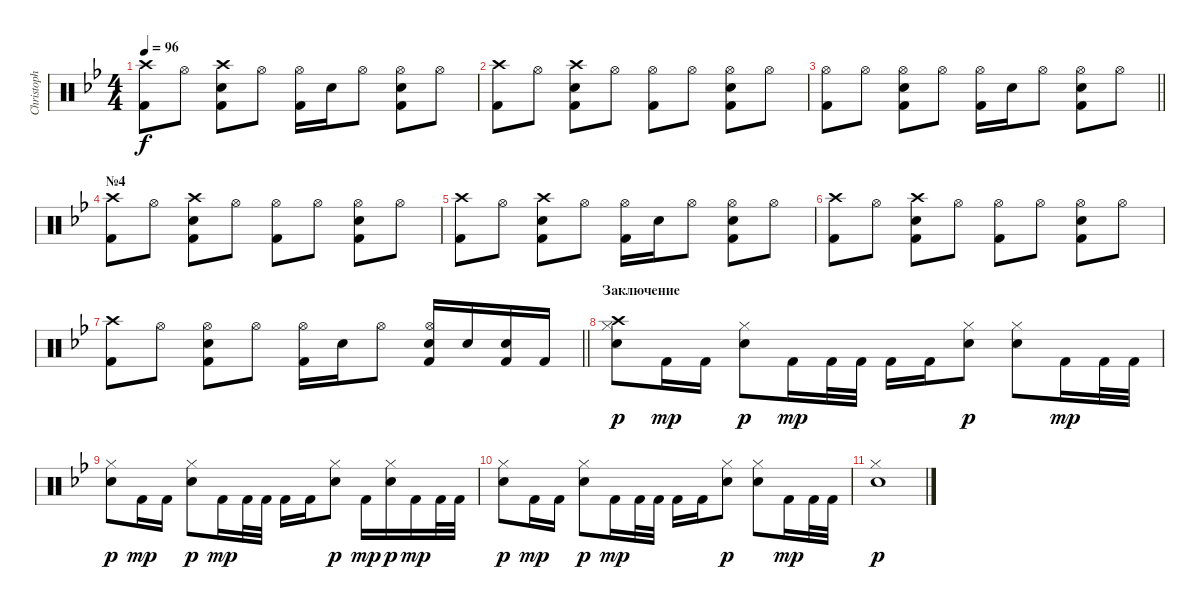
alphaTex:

\track ("Christoph Doom Schneider" "Christoph ") {instrument percussion}
\staff {score}
\articulation defaults
\ts (4 4)
\tempo 96
\clef neutral
\ks bb
("Crash high (hit)" "Kick (hit) 2").8{dy f} "Hi-Hat (open)".8 ("Snare (hit) 2" "Kick (hit) 2" "Crash high (hit)").8 "Hi-Hat (open)".8 ("Hi-Hat (open)" "Kick (hit) 2").16 "Snare (hit) 2".16 "Hi-Hat (open)".8 ("Snare (hit) 2" "Hi-Hat (open)" "Kick (hit) 2").8 "Hi-Hat (open)".8 |
("Crash high (hit)" "Kick (hit) 2").8 "Hi-Hat (open)".8 ("Snare (hit) 2" "Kick (hit) 2" "Crash high (hit)").8 "Hi-Hat (open)".8 ("Hi-Hat (open)" "Kick (hit) 2").8 "Hi-Hat (open)".8 ("Snare (hit) 2" "Hi-Hat (open)" "Kick (hit) 2").8 "Hi-Hat (open)".8 |
\barLineRight lightlight
("Hi-Hat (open)" "Kick (hit) 2").8 "Hi-Hat (open)".8 ("Snare (hit) 2" "Hi-Hat (open)" "Kick (hit) 2").8 "Hi-Hat (open)".8 ("Hi-Hat (open)" "Kick (hit) 2").16 "Snare (hit) 2".16 "Hi-Hat (open)".8 ("Snare (hit) 2" "Hi-Hat (open)" "Kick (hit) 2").8 "Hi-Hat (open)".8 |
\section ("" "№4")
("Crash high (hit)" "Kick (hit) 2").8 "Hi-Hat (open)".8 ("Snare (hit) 2" "Kick (hit) 2" "Crash high (hit)").8 "Hi-Hat (open)".8 ("Hi-Hat (open)" "Kick (hit) 2").8 "Hi-Hat (open)".8 ("Snare (hit) 2" "Hi-Hat (open)" "Kick (hit) 2").8 "Hi-Hat (open)".8 |
("Crash high (hit)" "Kick (hit) 2").8 "Hi-Hat (open)".8 ("Snare (hit) 2" "Kick (hit) 2" "Crash high (hit)").8 "Hi-Hat (open)".8 ("Hi-Hat (open)" "Kick (hit) 2").16 "Snare (hit) 2".16 "Hi-Hat (open)".8 ("Snare (hit) 2" "Hi-Hat (open)" "Kick (hit) 2").8 "Hi-Hat (open)".8 |
("Crash high (hit)" "Kick (hit) 2").8 "Hi-Hat (open)".8 ("Snare (hit) 2" "Kick (hit) 2" "Crash high (hit)").8 "Hi-Hat (open)".8 ("Hi-Hat (open)" "Kick (hit) 2").8 "Hi-Hat (open)".8 ("Snare (hit) 2" "Hi-Hat (open)" "Kick (hit) 2").8 "Hi-Hat (open)".8 |
\barLineRight lightlight
("Crash high (hit)" "Kick (hit) 2").8 "Hi-Hat (open)".8 ("Snare (hit) 2" "Hi-Hat (open)" "Kick (hit) 2").8 "Hi-Hat (open)".8 ("Hi-Hat (open)" "Kick (hit) 2").16 "Snare (hit) 2".16 "Hi-Hat (open)".8 ("Snare (hit) 2" "Hi-Hat (open)" "Kick (hit) 2").16 "Snare (hit) 2".16 ("Snare (hit) 2" "Kick (hit) 2").16 "Kick (hit) 2".16 |
\section ("" "Заключение")
("Snare (hit) 2" "Hi-Hat (closed)" "Crash high (hit)").8{dy p} "Kick (hit) 2".16{dy mp} "Kick (hit) 2".16 ("Snare (hit) 2" "Hi-Hat (closed)").8{dy p} "Kick (hit) 2".16{dy mp} "Kick (hit) 2".32 "Kick (hit) 2".32 "Kick (hit) 2".16 "Kick (hit) 2".16 ("Snare (hit) 2" "Hi-Hat (closed)").8{dy p} ("Snare (hit) 2" "Hi-Hat (closed)").8 "Kick (hit) 2".16{dy mp} "Kick (hit) 2".32 "Kick (hit) 2".32 |
("Snare (hit) 2" "Hi-Hat (closed)").8{dy p} "Kick (hit) 2".16{dy mp} "Kick (hit) 2".16 ("Snare (hit) 2" "Hi-Hat (closed)").8{dy p} "Kick (hit) 2".16{dy mp} "Kick (hit) 2".32 "Kick (hit) 2".32 "Kick (hit) 2".16 "Kick (hit) 2".16 ("Snare (hit) 2" "Hi-Hat (closed)").8{dy p} "Kick (hit) 2".16{dy mp} ("Snare (hit) 2" "Hi-Hat (closed)").16{dy p} "Kick (hit) 2".16{dy mp} "Kick (hit) 2".32 "Kick (hit) 2".32 |
("Snare (hit) 2" "Hi-Hat (closed)").8{dy p} "Kick (hit) 2".16{dy mp} "Kick (hit) 2".16 ("Snare (hit) 2" "Hi-Hat (closed)").8{dy p} "Kick (hit) 2".16{dy mp} "Kick (hit) 2".32 "Kick (hit) 2".32 "Kick (hit) 2".16 "Kick (hit) 2".16 ("Snare (hit) 2" "Hi-Hat (closed)").8{dy p} ("Snare (hit) 2" "Hi-Hat (closed)").8 "Kick (hit) 2".16{dy mp} "Kick (hit) 2".32 "Kick (hit) 2".32 |
("Snare (hit) 2" "Hi-Hat (closed)").1{dy p}
